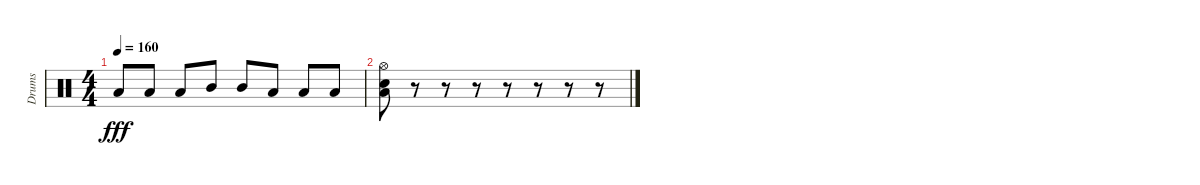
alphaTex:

\track ("Drums" "Drums") {instrument percussion}
\staff {score}
\articulation defaults
\ts (4 4)
\tempo 160
\clef neutral
\ks c "Low Floor Tom (hit)".8{dy fff} "Low Floor Tom (hit)".8 "Low Floor Tom (hit)".8 "Mid Tom (hit)".8 "Mid Tom (hit)".8 "Low Tom (hit)".8 "Low Tom (hit)".8 "Low Tom (hit)".8
|
("Low Tom (hit)" "Electric Snare (hit)" "Hi-Hat (open)").8 r.8{volume 0} r.8 r.8 r.8 r.8 r.8 r.8
